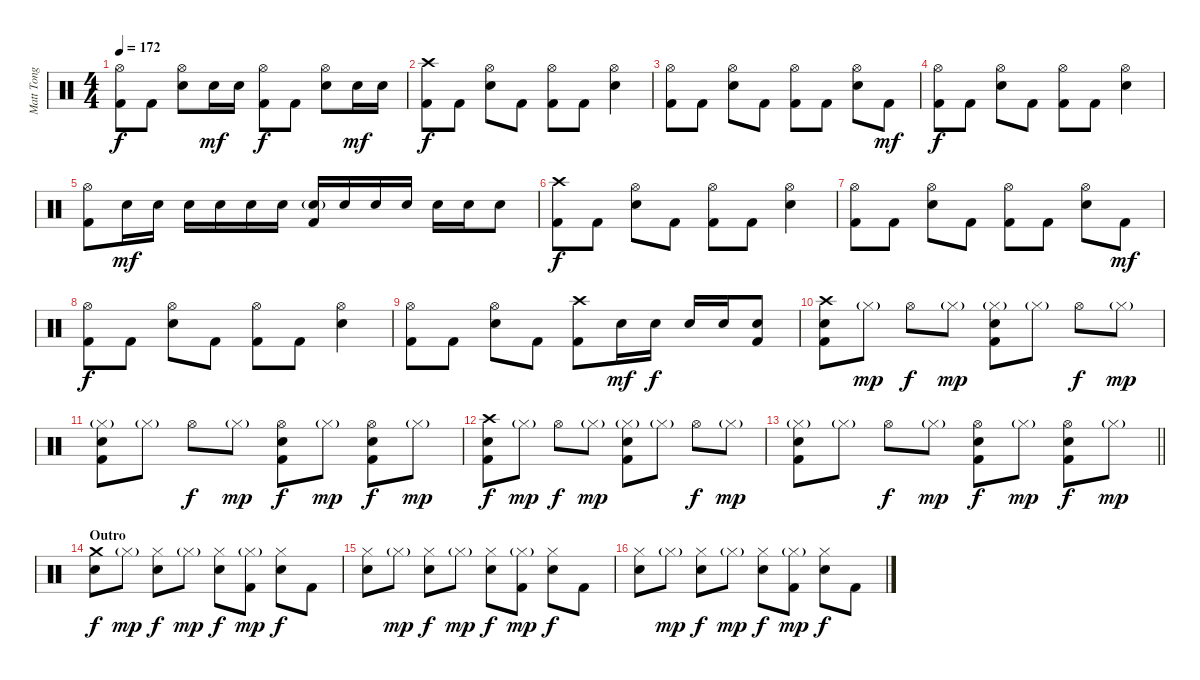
\track ("Matt Tong" "Matt Tong") {instrument percussion}
\staff {score}
\articulation defaults
\ts (4 4)
\tempo 172
\clef neutral
\ks c
("Hi-Hat (open)" "Kick (hit) 2").8{dy f} "Kick (hit) 2".8 ("Hi-Hat (open)" "Snare (hit) 2").8 "Snare (hit) 2".16{dy mf} "Snare (hit) 2".16 ("Hi-Hat (open)" "Kick (hit) 2").8{dy f} "Kick (hit) 2".8 ("Hi-Hat (open)" "Snare (hit) 2").8 "Snare (hit) 2".16{dy mf} "Snare (hit) 2".16 |
("Crash high (hit)" "Kick (hit) 2").8{dy f} "Kick (hit) 2".8 ("Hi-Hat (open)" "Snare (hit) 2").8 "Kick (hit) 2".8 ("Hi-Hat (open)" "Kick (hit) 2").8 "Kick (hit) 2".8 ("Hi-Hat (open)" "Snare (hit) 2").4 |
("Hi-Hat (open)" "Kick (hit) 2").8 "Kick (hit) 2".8 ("Hi-Hat (open)" "Snare (hit) 2").8 "Kick (hit) 2".8 ("Hi-Hat (open)" "Kick (hit) 2").8 "Kick (hit) 2".8 ("Hi-Hat (open)" "Snare (hit) 2").8 "Kick (hit) 2".8{dy mf} |
("Hi-Hat (open)" "Kick (hit) 2").8{dy f} "Kick (hit) 2".8 ("Hi-Hat (open)" "Snare (hit) 2").8 "Kick (hit) 2".8 ("Hi-Hat (open)" "Kick (hit) 2").8 "Kick (hit) 2".8 ("Hi-Hat (open)" "Snare (hit) 2").4 |
("Hi-Hat (open)" "Kick (hit) 2").8 "Snare (hit) 2".16{dy mf} "Snare (hit) 2".16 "Snare (hit) 2".16 "Snare (hit) 2".16 "Snare (hit) 2".16 "Snare (hit) 2".16 ("Snare (hit) 2"{g} "Kick (hit) 2").16 "Snare (hit) 2".16 "Snare (hit) 2".16 "Snare (hit) 2".16 "Snare (hit) 2".16 "Snare (hit) 2".16 "Snare (hit) 2".8 |
("Crash high (hit)" "Kick (hit) 2").8{dy f} "Kick (hit) 2".8 ("Hi-Hat (open)" "Snare (hit) 2").8 "Kick (hit) 2".8 ("Hi-Hat (open)" "Kick (hit) 2").8 "Kick (hit) 2".8 ("Hi-Hat (open)" "Snare (hit) 2").4 |
("Hi-Hat (open)" "Kick (hit) 2").8 "Kick (hit) 2".8 ("Hi-Hat (open)" "Snare (hit) 2").8 "Kick (hit) 2".8 ("Hi-Hat (open)" "Kick (hit) 2").8 "Kick (hit) 2".8 ("Hi-Hat (open)" "Snare (hit) 2").8 "Kick (hit) 2".8{dy mf} |
("Hi-Hat (open)" "Kick (hit) 2").8{dy f} "Kick (hit) 2".8 ("Hi-Hat (open)" "Snare (hit) 2").8 "Kick (hit) 2".8 ("Hi-Hat (open)" "Kick (hit) 2").8 "Kick (hit) 2".8 ("Hi-Hat (open)" "Snare (hit) 2").4 |
("Hi-Hat (open)" "Kick (hit) 2").8 "Kick (hit) 2".8 ("Hi-Hat (open)" "Snare (hit) 2").8 "Kick (hit) 2".8 ("Crash high (hit)" "Kick (hit) 2").8 "Snare (hit) 2".16{dy mf} "Snare (hit) 2".16{dy f} "Snare (hit) 2".16 "Snare (hit) 2".16 ("Snare (hit) 2" "Kick (hit) 2").8 |
("Crash high (hit)" "Snare (hit) 2" "Kick (hit) 2").8 "Hi-Hat (closed)"{g}.8{dy mp} "Hi-Hat (open)".8{dy f} "Hi-Hat (closed)"{g}.8{dy mp} ("Hi-Hat (closed)"{g} "Snare (hit) 2" "Kick (hit) 2").8 "Hi-Hat (closed)"{g}.8 "Hi-Hat (open)".8{dy f} "Hi-Hat (closed)"{g}.8{dy mp} |
("Hi-Hat (closed)"{g} "Snare (hit) 2" "Kick (hit) 2").8 "Hi-Hat (closed)"{g}.8 "Hi-Hat (open)".8{dy f} "Hi-Hat (closed)"{g}.8{dy mp} ("Hi-Hat (open)" "Snare (hit) 2" "Kick (hit) 2").8{dy f} "Hi-Hat (closed)"{g}.8{dy mp} ("Hi-Hat (open)" "Snare (hit) 2" "Kick (hit) 2").8{dy f} "Hi-Hat (closed)"{g}.8{dy mp} |
("Crash high (hit)" "Snare (hit) 2" "Kick (hit) 2").8{dy f} "Hi-Hat (closed)"{g}.8{dy mp} "Hi-Hat (open)".8{dy f} "Hi-Hat (closed)"{g}.8{dy mp} ("Hi-Hat (closed)"{g} "Snare (hit) 2" "Kick (hit) 2").8 "Hi-Hat (closed)"{g}.8 "Hi-Hat (open)".8{dy f} "Hi-Hat (closed)"{g}.8{dy mp} |
\barLineRight lightlight
("Hi-Hat (closed)"{g} "Snare (hit) 2" "Kick (hit) 2").8 "Hi-Hat (closed)"{g}.8 "Hi-Hat (open)".8{dy f} "Hi-Hat (closed)"{g}.8{dy mp} ("Hi-Hat (open)" "Snare (hit) 2" "Kick (hit) 2").8{dy f} "Hi-Hat (closed)"{g}.8{dy mp} ("Hi-Hat (open)" "Snare (hit) 2" "Kick (hit) 2").8{dy f} "Hi-Hat (closed)"{g}.8{dy mp} |
\section ("" "Outro")
("Crash medium (hit)" "Snare (hit) 2").8{dy f} "Hi-Hat (closed)"{g}.8{dy mp} ("Hi-Hat (closed)" "Snare (hit) 2").8{dy f} "Hi-Hat (closed)"{g}.8{dy mp} ("Hi-Hat (closed)" "Snare (hit) 2").8{dy f} ("Hi-Hat (closed)"{g} "Kick (hit) 2").8{dy mp} ("Hi-Hat (closed)" "Snare (hit) 2").8{dy f} "Kick (hit) 2".8 |
("Hi-Hat (closed)" "Snare (hit) 2").8 "Hi-Hat (closed)"{g}.8{dy mp} ("Hi-Hat (closed)" "Snare (hit) 2").8{dy f} "Hi-Hat (closed)"{g}.8{dy mp} ("Hi-Hat (closed)" "Snare (hit) 2").8{dy f} ("Hi-Hat (closed)"{g} "Kick (hit) 2").8{dy mp} ("Hi-Hat (closed)" "Snare (hit) 2").8{dy f} "Kick (hit) 2".8 |
("Hi-Hat (closed)" "Snare (hit) 2").8 "Hi-Hat (closed)"{g}.8{dy mp} ("Hi-Hat (closed)" "Snare (hit) 2").8{dy f} "Hi-Hat (closed)"{g}.8{dy mp} ("Hi-Hat (closed)" "Snare (hit) 2").8{dy f} ("Hi-Hat (closed)"{g} "Kick (hit) 2").8{dy mp} ("Hi-Hat (closed)" "Snare (hit) 2").8{dy f} "Kick (hit) 2".8
